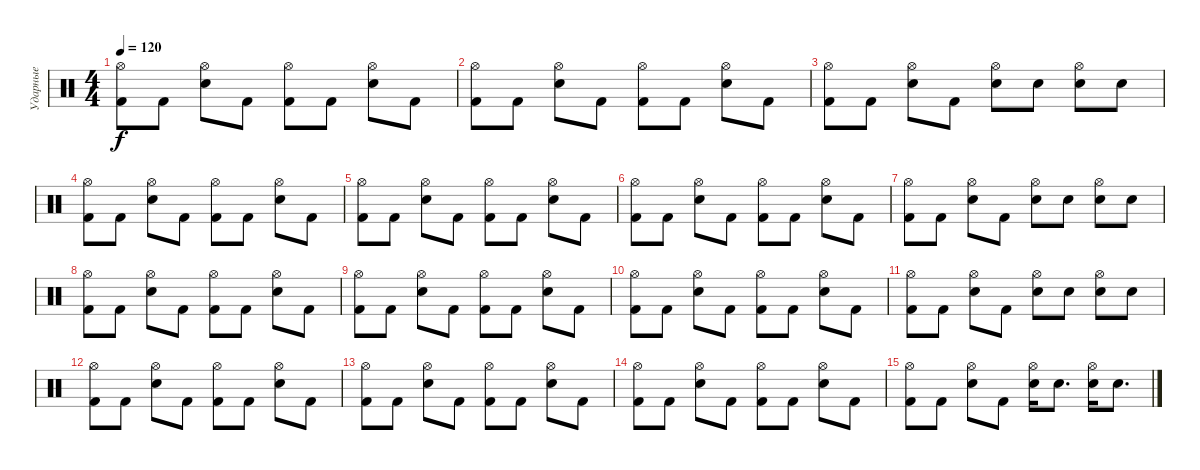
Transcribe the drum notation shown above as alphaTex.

\track ("Ударные" "Ударные") {instrument percussion}
\staff {score}
\articulation defaults
\ts (4 4)
\tempo 120
\clef neutral
\ks c
("Hi-Hat (open)" "Kick (hit) 2").8{dy f} "Kick (hit) 2".8 ("Hi-Hat (open)" "Snare (hit) 2").8 "Kick (hit) 2".8 ("Hi-Hat (open)" "Kick (hit) 2").8 "Kick (hit) 2".8 ("Hi-Hat (open)" "Snare (hit) 2").8 "Kick (hit) 2".8 |
("Hi-Hat (open)" "Kick (hit) 2").8 "Kick (hit) 2".8 ("Hi-Hat (open)" "Snare (hit) 2").8 "Kick (hit) 2".8 ("Hi-Hat (open)" "Kick (hit) 2").8 "Kick (hit) 2".8 ("Hi-Hat (open)" "Snare (hit) 2").8 "Kick (hit) 2".8 |
("Hi-Hat (open)" "Kick (hit) 2").8 "Kick (hit) 2".8 ("Hi-Hat (open)" "Snare (hit) 2").8 "Kick (hit) 2".8 ("Hi-Hat (open)" "Snare (hit) 2").8 "Snare (hit) 2".8 ("Hi-Hat (open)" "Snare (hit) 2").8 "Snare (hit) 2".8 |
("Hi-Hat (open)" "Kick (hit) 2").8 "Kick (hit) 2".8 ("Hi-Hat (open)" "Snare (hit) 2").8 "Kick (hit) 2".8 ("Hi-Hat (open)" "Kick (hit) 2").8 "Kick (hit) 2".8 ("Hi-Hat (open)" "Snare (hit) 2").8 "Kick (hit) 2".8 |
("Hi-Hat (open)" "Kick (hit) 2").8 "Kick (hit) 2".8 ("Hi-Hat (open)" "Snare (hit) 2").8 "Kick (hit) 2".8 ("Hi-Hat (open)" "Kick (hit) 2").8 "Kick (hit) 2".8 ("Hi-Hat (open)" "Snare (hit) 2").8 "Kick (hit) 2".8 |
("Hi-Hat (open)" "Kick (hit) 2").8 "Kick (hit) 2".8 ("Hi-Hat (open)" "Snare (hit) 2").8 "Kick (hit) 2".8 ("Hi-Hat (open)" "Kick (hit) 2").8 "Kick (hit) 2".8 ("Hi-Hat (open)" "Snare (hit) 2").8 "Kick (hit) 2".8 |
("Hi-Hat (open)" "Kick (hit) 2").8 "Kick (hit) 2".8 ("Hi-Hat (open)" "Snare (hit) 2").8 "Kick (hit) 2".8 ("Hi-Hat (open)" "Snare (hit) 2").8 "Snare (hit) 2".8 ("Hi-Hat (open)" "Snare (hit) 2").8 "Snare (hit) 2".8 |
("Hi-Hat (open)" "Kick (hit) 2").8 "Kick (hit) 2".8 ("Hi-Hat (open)" "Snare (hit) 2").8 "Kick (hit) 2".8 ("Hi-Hat (open)" "Kick (hit) 2").8 "Kick (hit) 2".8 ("Hi-Hat (open)" "Snare (hit) 2").8 "Kick (hit) 2".8 |
("Hi-Hat (open)" "Kick (hit) 2").8 "Kick (hit) 2".8 ("Hi-Hat (open)" "Snare (hit) 2").8 "Kick (hit) 2".8 ("Hi-Hat (open)" "Kick (hit) 2").8 "Kick (hit) 2".8 ("Hi-Hat (open)" "Snare (hit) 2").8 "Kick (hit) 2".8 |
("Hi-Hat (open)" "Kick (hit) 2").8 "Kick (hit) 2".8 ("Hi-Hat (open)" "Snare (hit) 2").8 "Kick (hit) 2".8 ("Hi-Hat (open)" "Kick (hit) 2").8 "Kick (hit) 2".8 ("Hi-Hat (open)" "Snare (hit) 2").8 "Kick (hit) 2".8 |
("Hi-Hat (open)" "Kick (hit) 2").8 "Kick (hit) 2".8 ("Hi-Hat (open)" "Snare (hit) 2").8 "Kick (hit) 2".8 ("Hi-Hat (open)" "Snare (hit) 2").8 "Snare (hit) 2".8 ("Hi-Hat (open)" "Snare (hit) 2").8 "Snare (hit) 2".8 |
("Hi-Hat (open)" "Kick (hit) 2").8 "Kick (hit) 2".8 ("Hi-Hat (open)" "Snare (hit) 2").8 "Kick (hit) 2".8 ("Hi-Hat (open)" "Kick (hit) 2").8 "Kick (hit) 2".8 ("Hi-Hat (open)" "Snare (hit) 2").8 "Kick (hit) 2".8 |
("Hi-Hat (open)" "Kick (hit) 2").8 "Kick (hit) 2".8 ("Hi-Hat (open)" "Snare (hit) 2").8 "Kick (hit) 2".8 ("Hi-Hat (open)" "Kick (hit) 2").8 "Kick (hit) 2".8 ("Hi-Hat (open)" "Snare (hit) 2").8 "Kick (hit) 2".8 |
("Hi-Hat (open)" "Kick (hit) 2").8 "Kick (hit) 2".8 ("Hi-Hat (open)" "Snare (hit) 2").8 "Kick (hit) 2".8 ("Hi-Hat (open)" "Kick (hit) 2").8 "Kick (hit) 2".8 ("Hi-Hat (open)" "Snare (hit) 2").8 "Kick (hit) 2".8 |
("Hi-Hat (open)" "Kick (hit) 2").8 "Kick (hit) 2".8 ("Hi-Hat (open)" "Snare (hit) 2").8 "Kick (hit) 2".8 ("Hi-Hat (open)" "Snare (hit) 2").16 "Snare (hit) 2".8{d} ("Hi-Hat (open)" "Snare (hit) 2").16 "Snare (hit) 2".8{d}
